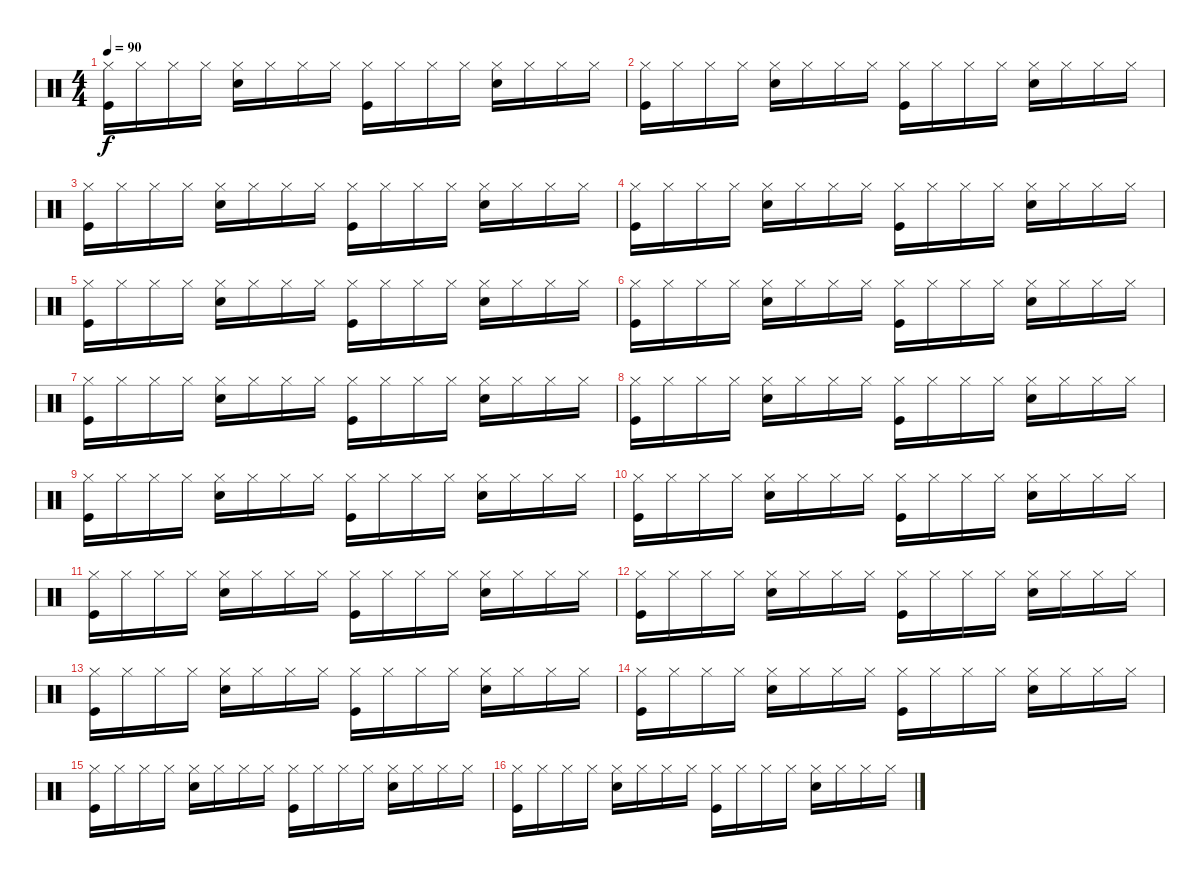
\track "" {instrument percussion}
\staff {score}
\articulation defaults
\ts (4 4)
\tempo 90
\clef neutral
\ks c
("Kick (hit)" "Hi-Hat (closed)").16{dy f} "Hi-Hat (closed)".16 "Hi-Hat (closed)".16 "Hi-Hat (closed)".16 ("Hi-Hat (closed)" "Snare (hit) 2").16 "Hi-Hat (closed)".16 "Hi-Hat (closed)".16 "Hi-Hat (closed)".16 ("Hi-Hat (closed)" "Kick (hit)").16 "Hi-Hat (closed)".16 "Hi-Hat (closed)".16 "Hi-Hat (closed)".16 ("Snare (hit) 2" "Hi-Hat (closed)").16 "Hi-Hat (closed)".16 "Hi-Hat (closed)".16 "Hi-Hat (closed)".16 |
("Kick (hit)" "Hi-Hat (closed)").16 "Hi-Hat (closed)".16 "Hi-Hat (closed)".16 "Hi-Hat (closed)".16 ("Hi-Hat (closed)" "Snare (hit) 2").16 "Hi-Hat (closed)".16 "Hi-Hat (closed)".16 "Hi-Hat (closed)".16 ("Kick (hit)" "Hi-Hat (closed)").16 "Hi-Hat (closed)".16 "Hi-Hat (closed)".16 "Hi-Hat (closed)".16 ("Snare (hit) 2" "Hi-Hat (closed)").16 "Hi-Hat (closed)".16 "Hi-Hat (closed)".16 "Hi-Hat (closed)".16 |
("Hi-Hat (closed)" "Kick (hit)").16 "Hi-Hat (closed)".16 "Hi-Hat (closed)".16 "Hi-Hat (closed)".16 ("Snare (hit) 2" "Hi-Hat (closed)").16 "Hi-Hat (closed)".16 "Hi-Hat (closed)".16 "Hi-Hat (closed)".16 ("Kick (hit)" "Hi-Hat (closed)").16 "Hi-Hat (closed)".16 "Hi-Hat (closed)".16 "Hi-Hat (closed)".16 ("Hi-Hat (closed)" "Snare (hit) 2").16 "Hi-Hat (closed)".16 "Hi-Hat (closed)".16 "Hi-Hat (closed)".16 |
("Kick (hit)" "Hi-Hat (closed)").16 "Hi-Hat (closed)".16 "Hi-Hat (closed)".16 "Hi-Hat (closed)".16 ("Snare (hit) 2" "Hi-Hat (closed)").16 "Hi-Hat (closed)".16 "Hi-Hat (closed)".16 "Hi-Hat (closed)".16 ("Hi-Hat (closed)" "Kick (hit)").16 "Hi-Hat (closed)".16 "Hi-Hat (closed)".16 "Hi-Hat (closed)".16 ("Snare (hit) 2" "Hi-Hat (closed)").16 "Hi-Hat (closed)".16 "Hi-Hat (closed)".16 "Hi-Hat (closed)".16 |
("Kick (hit)" "Hi-Hat (closed)").16 "Hi-Hat (closed)".16 "Hi-Hat (closed)".16 "Hi-Hat (closed)".16 ("Hi-Hat (closed)" "Snare (hit) 2").16 "Hi-Hat (closed)".16 "Hi-Hat (closed)".16 "Hi-Hat (closed)".16 ("Kick (hit)" "Hi-Hat (closed)").16 "Hi-Hat (closed)".16 "Hi-Hat (closed)".16 "Hi-Hat (closed)".16 ("Snare (hit) 2" "Hi-Hat (closed)").16 "Hi-Hat (closed)".16 "Hi-Hat (closed)".16 "Hi-Hat (closed)".16 |
("Kick (hit)" "Hi-Hat (closed)").16 "Hi-Hat (closed)".16 "Hi-Hat (closed)".16 "Hi-Hat (closed)".16 ("Snare (hit) 2" "Hi-Hat (closed)").16 "Hi-Hat (closed)".16 "Hi-Hat (closed)".16 "Hi-Hat (closed)".16 ("Hi-Hat (closed)" "Kick (hit)").16 "Hi-Hat (closed)".16 "Hi-Hat (closed)".16 "Hi-Hat (closed)".16 ("Snare (hit) 2" "Hi-Hat (closed)").16 "Hi-Hat (closed)".16 "Hi-Hat (closed)".16 "Hi-Hat (closed)".16 |
("Kick (hit)" "Hi-Hat (closed)").16 "Hi-Hat (closed)".16 "Hi-Hat (closed)".16 "Hi-Hat (closed)".16 ("Hi-Hat (closed)" "Snare (hit) 2").16 "Hi-Hat (closed)".16 "Hi-Hat (closed)".16 "Hi-Hat (closed)".16 ("Kick (hit)" "Hi-Hat (closed)").16 "Hi-Hat (closed)".16 "Hi-Hat (closed)".16 "Hi-Hat (closed)".16 ("Snare (hit) 2" "Hi-Hat (closed)").16 "Hi-Hat (closed)".16 "Hi-Hat (closed)".16 "Hi-Hat (closed)".16 |
("Hi-Hat (closed)" "Kick (hit)").16 "Hi-Hat (closed)".16 "Hi-Hat (closed)".16 "Hi-Hat (closed)".16 ("Snare (hit) 2" "Hi-Hat (closed)").16 "Hi-Hat (closed)".16 "Hi-Hat (closed)".16 "Hi-Hat (closed)".16 ("Kick (hit)" "Hi-Hat (closed)").16 "Hi-Hat (closed)".16 "Hi-Hat (closed)".16 "Hi-Hat (closed)".16 ("Hi-Hat (closed)" "Snare (hit) 2").16 "Hi-Hat (closed)".16 "Hi-Hat (closed)".16 "Hi-Hat (closed)".16 |
("Kick (hit)" "Hi-Hat (closed)").16 "Hi-Hat (closed)".16 "Hi-Hat (closed)".16 "Hi-Hat (closed)".16 ("Snare (hit) 2" "Hi-Hat (closed)").16 "Hi-Hat (closed)".16 "Hi-Hat (closed)".16 "Hi-Hat (closed)".16 ("Hi-Hat (closed)" "Kick (hit)").16 "Hi-Hat (closed)".16 "Hi-Hat (closed)".16 "Hi-Hat (closed)".16 ("Snare (hit) 2" "Hi-Hat (closed)").16 "Hi-Hat (closed)".16 "Hi-Hat (closed)".16 "Hi-Hat (closed)".16 |
("Kick (hit)" "Hi-Hat (closed)").16 "Hi-Hat (closed)".16 "Hi-Hat (closed)".16 "Hi-Hat (closed)".16 ("Hi-Hat (closed)" "Snare (hit) 2").16 "Hi-Hat (closed)".16 "Hi-Hat (closed)".16 "Hi-Hat (closed)".16 ("Kick (hit)" "Hi-Hat (closed)").16 "Hi-Hat (closed)".16 "Hi-Hat (closed)".16 "Hi-Hat (closed)".16 ("Snare (hit) 2" "Hi-Hat (closed)").16 "Hi-Hat (closed)".16 "Hi-Hat (closed)".16 "Hi-Hat (closed)".16 |
("Hi-Hat (closed)" "Kick (hit)").16 "Hi-Hat (closed)".16 "Hi-Hat (closed)".16 "Hi-Hat (closed)".16 ("Snare (hit) 2" "Hi-Hat (closed)").16 "Hi-Hat (closed)".16 "Hi-Hat (closed)".16 "Hi-Hat (closed)".16 ("Kick (hit)" "Hi-Hat (closed)").16 "Hi-Hat (closed)".16 "Hi-Hat (closed)".16 "Hi-Hat (closed)".16 ("Hi-Hat (closed)" "Snare (hit) 2").16 "Hi-Hat (closed)".16 "Hi-Hat (closed)".16 "Hi-Hat (closed)".16 |
("Kick (hit)" "Hi-Hat (closed)").16 "Hi-Hat (closed)".16 "Hi-Hat (closed)".16 "Hi-Hat (closed)".16 ("Snare (hit) 2" "Hi-Hat (closed)").16 "Hi-Hat (closed)".16 "Hi-Hat (closed)".16 "Hi-Hat (closed)".16 ("Hi-Hat (closed)" "Kick (hit)").16 "Hi-Hat (closed)".16 "Hi-Hat (closed)".16 "Hi-Hat (closed)".16 ("Snare (hit) 2" "Hi-Hat (closed)").16 "Hi-Hat (closed)".16 "Hi-Hat (closed)".16 "Hi-Hat (closed)".16 |
("Kick (hit)" "Hi-Hat (closed)").16 "Hi-Hat (closed)".16 "Hi-Hat (closed)".16 "Hi-Hat (closed)".16 ("Hi-Hat (closed)" "Snare (hit) 2").16 "Hi-Hat (closed)".16 "Hi-Hat (closed)".16 "Hi-Hat (closed)".16 ("Kick (hit)" "Hi-Hat (closed)").16 "Hi-Hat (closed)".16 "Hi-Hat (closed)".16 "Hi-Hat (closed)".16 ("Snare (hit) 2" "Hi-Hat (closed)").16 "Hi-Hat (closed)".16 "Hi-Hat (closed)".16 "Hi-Hat (closed)".16 |
("Hi-Hat (closed)" "Kick (hit)").16 "Hi-Hat (closed)".16 "Hi-Hat (closed)".16 "Hi-Hat (closed)".16 ("Snare (hit) 2" "Hi-Hat (closed)").16 "Hi-Hat (closed)".16 "Hi-Hat (closed)".16 "Hi-Hat (closed)".16 ("Kick (hit)" "Hi-Hat (closed)").16 "Hi-Hat (closed)".16 "Hi-Hat (closed)".16 "Hi-Hat (closed)".16 ("Hi-Hat (closed)" "Snare (hit) 2").16 "Hi-Hat (closed)".16 "Hi-Hat (closed)".16 "Hi-Hat (closed)".16 |
("Kick (hit)" "Hi-Hat (closed)").16 "Hi-Hat (closed)".16 "Hi-Hat (closed)".16 "Hi-Hat (closed)".16 ("Snare (hit) 2" "Hi-Hat (closed)").16 "Hi-Hat (closed)".16 "Hi-Hat (closed)".16 "Hi-Hat (closed)".16 ("Hi-Hat (closed)" "Kick (hit)").16 "Hi-Hat (closed)".16 "Hi-Hat (closed)".16 "Hi-Hat (closed)".16 ("Snare (hit) 2" "Hi-Hat (closed)").16 "Hi-Hat (closed)".16 "Hi-Hat (closed)".16 "Hi-Hat (closed)".16 |
("Kick (hit)" "Hi-Hat (closed)").16 "Hi-Hat (closed)".16 "Hi-Hat (closed)".16 "Hi-Hat (closed)".16 ("Hi-Hat (closed)" "Snare (hit) 2").16 "Hi-Hat (closed)".16 "Hi-Hat (closed)".16 "Hi-Hat (closed)".16 ("Kick (hit)" "Hi-Hat (closed)").16 "Hi-Hat (closed)".16 "Hi-Hat (closed)".16 "Hi-Hat (closed)".16 ("Snare (hit) 2" "Hi-Hat (closed)").16 "Hi-Hat (closed)".16 "Hi-Hat (closed)".16 "Hi-Hat (closed)".16
